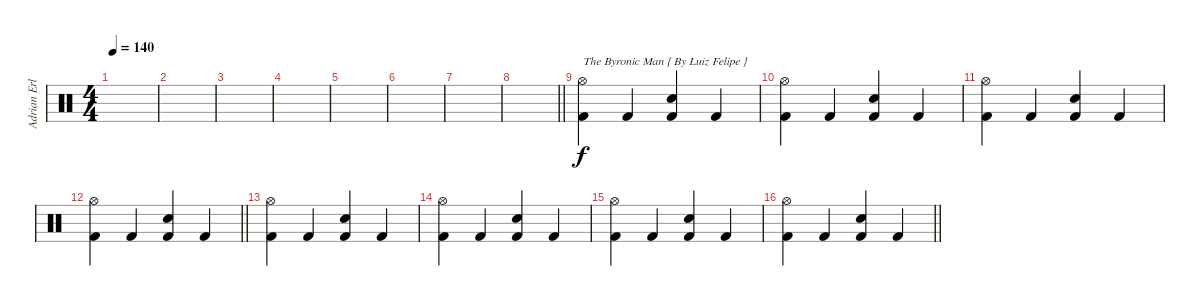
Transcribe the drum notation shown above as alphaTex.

\track ("Adrian Erlandsson" "Adrian Erl") {instrument percussion}
\staff {score}
\articulation defaults
\ts (4 4)
\tempo 140
\clef neutral
\ks c
|
|
|
|
|
|
|
\barLineRight lightlight
|
("Kick (hit) 2" "Hi-Hat (open)").4{txt "The Byronic Man { By Luiz Felipe }"} "Kick (hit) 2".4 ("Kick (hit) 2" "Electric Snare (hit)").4 "Kick (hit) 2".4 |
("Kick (hit) 2" "Hi-Hat (open)").4 "Kick (hit) 2".4 ("Kick (hit) 2" "Electric Snare (hit)").4 "Kick (hit) 2".4 |
("Kick (hit) 2" "Hi-Hat (open)").4 "Kick (hit) 2".4 ("Kick (hit) 2" "Electric Snare (hit)").4 "Kick (hit) 2".4 |
\barLineRight lightlight
("Kick (hit) 2" "Hi-Hat (open)").4 "Kick (hit) 2".4 ("Kick (hit) 2" "Electric Snare (hit)").4 "Kick (hit) 2".4 |
("Kick (hit) 2" "Hi-Hat (open)").4 "Kick (hit) 2".4 ("Kick (hit) 2" "Electric Snare (hit)").4 "Kick (hit) 2".4 |
("Kick (hit) 2" "Hi-Hat (open)").4 "Kick (hit) 2".4 ("Kick (hit) 2" "Electric Snare (hit)").4 "Kick (hit) 2".4 |
("Kick (hit) 2" "Hi-Hat (open)").4 "Kick (hit) 2".4 ("Kick (hit) 2" "Electric Snare (hit)").4 "Kick (hit) 2".4 |
\barLineRight lightlight
("Kick (hit) 2" "Hi-Hat (open)").4 "Kick (hit) 2".4 ("Kick (hit) 2" "Electric Snare (hit)").4 "Kick (hit) 2".4
